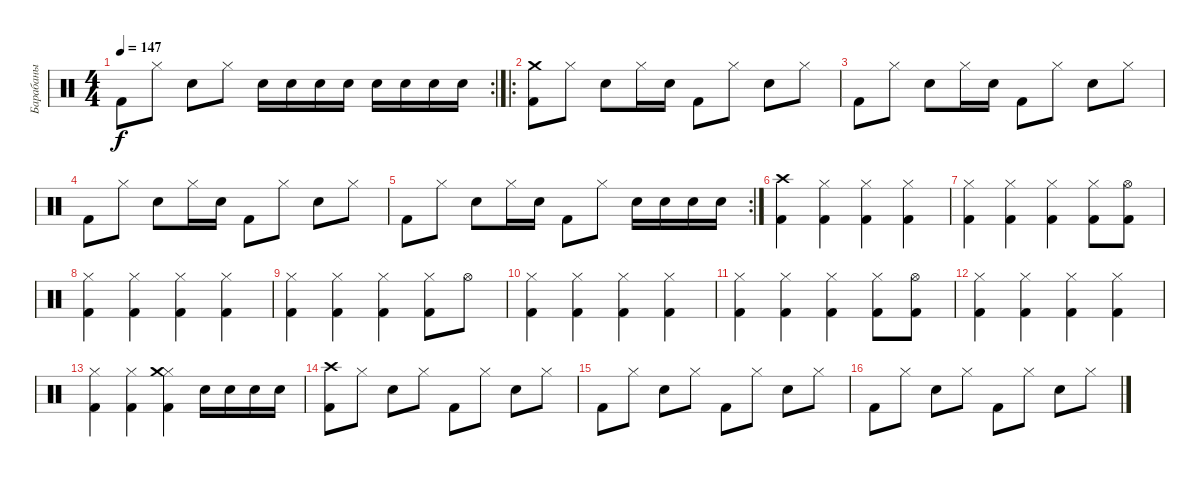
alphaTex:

\track ("Барабаны" "Барабаны") {instrument percussion}
\staff {score}
\articulation defaults
\rc 2
\ts (4 4)
\tempo 147
\clef neutral
\ks c "Kick (hit) 2".8{dy f} "Hi-Hat (closed)".8 "Electric Snare (hit)".8 "Hi-Hat (closed)".8 "Electric Snare (hit)".16 "Electric Snare (hit)".16 "Electric Snare (hit)".16 "Electric Snare (hit)".16 "Electric Snare (hit)".16 "Electric Snare (hit)".16 "Electric Snare (hit)".16 "Electric Snare (hit)".16
|
\ro
("Kick (hit) 2" "Crash medium (hit)").8 "Hi-Hat (closed)".8 "Electric Snare (hit)".8 "Hi-Hat (closed)".16 "Electric Snare (hit)".16 "Kick (hit) 2".8 "Hi-Hat (closed)".8 "Electric Snare (hit)".8 "Hi-Hat (closed)".8 |
"Kick (hit) 2".8 "Hi-Hat (closed)".8 "Electric Snare (hit)".8 "Hi-Hat (closed)".16 "Electric Snare (hit)".16 "Kick (hit) 2".8 "Hi-Hat (closed)".8 "Electric Snare (hit)".8 "Hi-Hat (closed)".8 |
"Kick (hit) 2".8 "Hi-Hat (closed)".8 "Electric Snare (hit)".8 "Hi-Hat (closed)".16 "Electric Snare (hit)".16 "Kick (hit) 2".8 "Hi-Hat (closed)".8 "Electric Snare (hit)".8 "Hi-Hat (closed)".8 |
\rc 2 "Kick (hit) 2".8 "Hi-Hat (closed)".8 "Electric Snare (hit)".8 "Hi-Hat (closed)".16 "Electric Snare (hit)".16 "Kick (hit) 2".8 "Hi-Hat (closed)".8 "Electric Snare (hit)".16 "Electric Snare (hit)".16 "Electric Snare (hit)".16 "Electric Snare (hit)".16
|
("Kick (hit) 2" "Crash high (hit)").4 ("Kick (hit) 2" "Hi-Hat (closed)").4 ("Kick (hit) 2" "Hi-Hat (closed)").4 ("Kick (hit) 2" "Hi-Hat (closed)").4 |
("Kick (hit) 2" "Hi-Hat (closed)").4 ("Kick (hit) 2" "Hi-Hat (closed)").4 ("Kick (hit) 2" "Hi-Hat (closed)").4 ("Kick (hit) 2" "Hi-Hat (closed)").8 ("Kick (hit) 2" "Hi-Hat (open)").8 |
("Kick (hit) 2" "Hi-Hat (closed)").4 ("Kick (hit) 2" "Hi-Hat (closed)").4 ("Kick (hit) 2" "Hi-Hat (closed)").4 ("Kick (hit) 2" "Hi-Hat (closed)").4 |
("Kick (hit) 2" "Hi-Hat (closed)").4 ("Kick (hit) 2" "Hi-Hat (closed)").4 ("Kick (hit) 2" "Hi-Hat (closed)").4 ("Kick (hit) 2" "Hi-Hat (closed)").8 "Hi-Hat (open)".8 |
("Kick (hit) 2" "Hi-Hat (closed)").4 ("Kick (hit) 2" "Hi-Hat (closed)").4 ("Kick (hit) 2" "Hi-Hat (closed)").4 ("Kick (hit) 2" "Hi-Hat (closed)").4 |
("Kick (hit) 2" "Hi-Hat (closed)").4 ("Kick (hit) 2" "Hi-Hat (closed)").4 ("Kick (hit) 2" "Hi-Hat (closed)").4 ("Kick (hit) 2" "Hi-Hat (closed)").8 ("Kick (hit) 2" "Hi-Hat (open)").8 |
("Kick (hit) 2" "Hi-Hat (closed)").4 ("Kick (hit) 2" "Hi-Hat (closed)").4 ("Kick (hit) 2" "Hi-Hat (closed)").4 ("Kick (hit) 2" "Hi-Hat (closed)").4 |
("Kick (hit) 2" "Hi-Hat (closed)").4 ("Kick (hit) 2" "Hi-Hat (closed)").4 ("Kick (hit) 2" "Hi-Hat (closed)" "Crash medium (hit)").4 "Electric Snare (hit)".16 "Electric Snare (hit)".16 "Electric Snare (hit)".16 "Electric Snare (hit)".16 |
("Kick (hit) 2" "Crash high (hit)").8 "Hi-Hat (closed)".8 "Electric Snare (hit)".8 "Hi-Hat (closed)".8 "Kick (hit) 2".8 "Hi-Hat (closed)".8 "Electric Snare (hit)".8 "Hi-Hat (closed)".8 |
"Kick (hit) 2".8 "Hi-Hat (closed)".8 "Electric Snare (hit)".8 "Hi-Hat (closed)".8 "Kick (hit) 2".8 "Hi-Hat (closed)".8 "Electric Snare (hit)".8 "Hi-Hat (closed)".8 |
"Kick (hit) 2".8 "Hi-Hat (closed)".8 "Electric Snare (hit)".8 "Hi-Hat (closed)".8 "Kick (hit) 2".8 "Hi-Hat (closed)".8 "Electric Snare (hit)".8 "Hi-Hat (closed)".8
